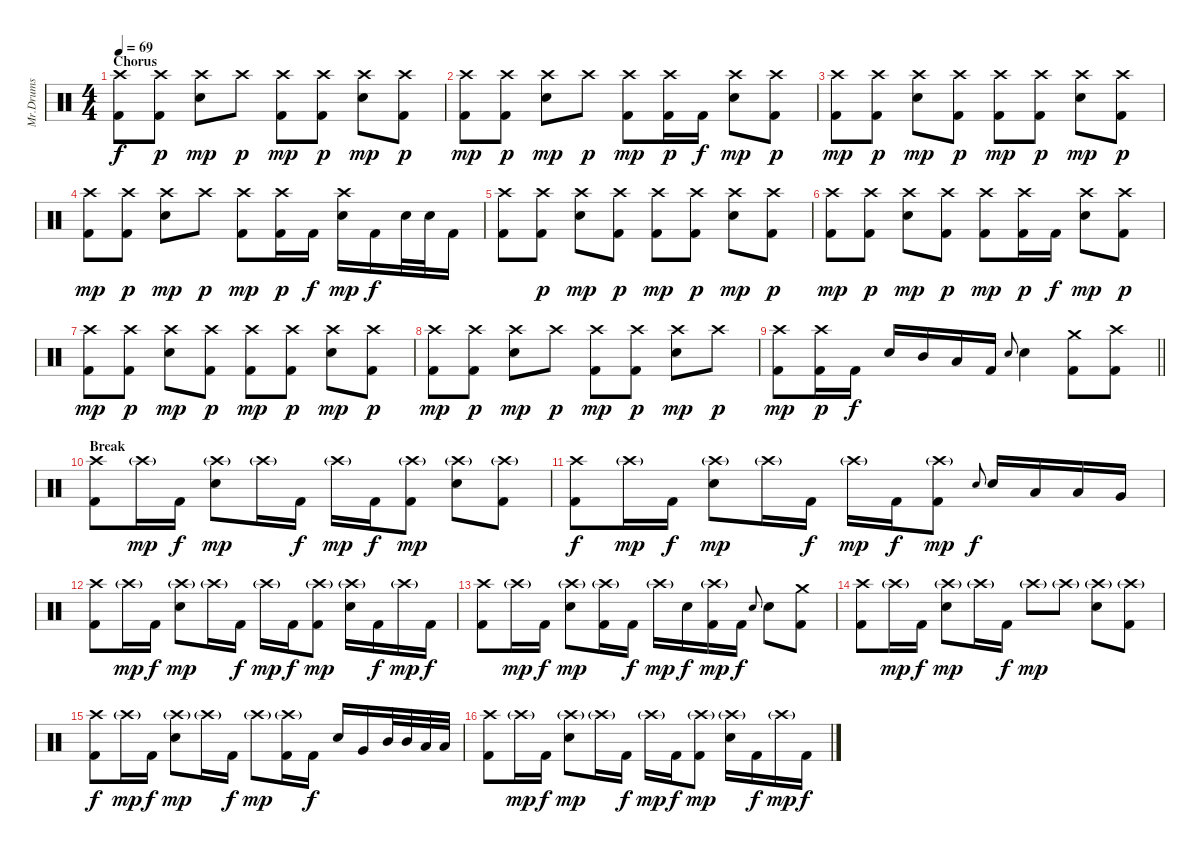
\track ("Mr.Drums" "Mr.Drums") {instrument percussion}
\staff {score}
\articulation defaults
\ts (4 4)
\section ("" "Chorus")
\tempo 69
\clef neutral
\ks c
("Crash high (hit)" "Kick (hit) 2").8{dy f} ("Crash high (hit)" "Kick (hit) 2").8{dy p} ("Crash high (hit)" "Electric Snare (hit)").8{dy mp} "Crash high (hit)".8{dy p} ("Crash high (hit)" "Kick (hit) 2").8{dy mp} ("Crash high (hit)" "Kick (hit) 2").8{dy p} ("Crash high (hit)" "Electric Snare (hit)").8{dy mp} ("Crash high (hit)" "Kick (hit) 2").8{dy p} |
("Crash high (hit)" "Kick (hit) 2").8{dy mp} ("Crash high (hit)" "Kick (hit) 2").8{dy p} ("Crash high (hit)" "Electric Snare (hit)").8{dy mp} "Crash high (hit)".8{dy p} ("Crash high (hit)" "Kick (hit) 2").8{dy mp} ("Crash high (hit)" "Kick (hit) 2").16{dy p} "Kick (hit) 2".16{dy f} ("Crash high (hit)" "Electric Snare (hit)").8{dy mp} ("Crash high (hit)" "Kick (hit) 2").8{dy p} |
("Crash high (hit)" "Kick (hit) 2").8{dy mp} ("Crash high (hit)" "Kick (hit) 2").8{dy p} ("Crash high (hit)" "Electric Snare (hit)").8{dy mp} ("Crash high (hit)" "Kick (hit) 2").8{dy p} ("Crash high (hit)" "Kick (hit) 2").8{dy mp} ("Crash high (hit)" "Kick (hit) 2").8{dy p} ("Crash high (hit)" "Electric Snare (hit)").8{dy mp} ("Crash high (hit)" "Kick (hit) 2").8{dy p} |
("Crash high (hit)" "Kick (hit) 2").8{dy mp} ("Crash high (hit)" "Kick (hit) 2").8{dy p} ("Crash high (hit)" "Electric Snare (hit)").8{dy mp} "Crash high (hit)".8{dy p} ("Crash high (hit)" "Kick (hit) 2").8{dy mp} ("Crash high (hit)" "Kick (hit) 2").16{dy p} "Kick (hit) 2".16{dy f} ("Crash high (hit)" "Electric Snare (hit)").16{dy mp} "Kick (hit) 2".16{dy f} "Electric Snare (hit)".32 "Electric Snare (hit)".32 "Kick (hit) 2".16 |
("Crash high (hit)" "Kick (hit) 2").8 ("Crash high (hit)" "Kick (hit) 2").8{dy p} ("Crash high (hit)" "Electric Snare (hit)").8{dy mp} ("Crash high (hit)" "Kick (hit) 2").8{dy p} ("Crash high (hit)" "Kick (hit) 2").8{dy mp} ("Crash high (hit)" "Kick (hit) 2").8{dy p} ("Crash high (hit)" "Electric Snare (hit)").8{dy mp} ("Crash high (hit)" "Kick (hit) 2").8{dy p} |
("Crash high (hit)" "Kick (hit) 2").8{dy mp} ("Crash high (hit)" "Kick (hit) 2").8{dy p} ("Crash high (hit)" "Electric Snare (hit)").8{dy mp} ("Crash high (hit)" "Kick (hit) 2").8{dy p} ("Crash high (hit)" "Kick (hit) 2").8{dy mp} ("Crash high (hit)" "Kick (hit) 2").16{dy p} "Kick (hit) 2".16{dy f} ("Crash high (hit)" "Electric Snare (hit)").8{dy mp} ("Crash high (hit)" "Kick (hit) 2").8{dy p} |
("Crash high (hit)" "Kick (hit) 2").8{dy mp} ("Crash high (hit)" "Kick (hit) 2").8{dy p} ("Crash high (hit)" "Electric Snare (hit)").8{dy mp} ("Crash high (hit)" "Kick (hit) 2").8{dy p} ("Crash high (hit)" "Kick (hit) 2").8{dy mp} ("Crash high (hit)" "Kick (hit) 2").8{dy p} ("Crash high (hit)" "Electric Snare (hit)").8{dy mp} ("Crash high (hit)" "Kick (hit) 2").8{dy p} |
("Crash high (hit)" "Kick (hit) 2").8{dy mp} ("Crash high (hit)" "Kick (hit) 2").8{dy p} ("Crash high (hit)" "Electric Snare (hit)").8{dy mp} "Crash high (hit)".8{dy p} ("Crash high (hit)" "Kick (hit) 2").8{dy mp} ("Crash high (hit)" "Kick (hit) 2").8{dy p} ("Crash high (hit)" "Electric Snare (hit)").8{dy mp} "Crash high (hit)".8{dy p} |
\barLineRight lightlight
("Crash high (hit)" "Kick (hit) 2").8{dy mp} ("Crash high (hit)" "Kick (hit) 2").16{dy p} "Kick (hit) 2".16{dy f} "Electric Snare (hit)".16 "Mid Tom (hit)".16 "Low Tom (hit)".16 "Kick (hit) 2".16 "Electric Snare (hit)".8{gr onbeat} "Electric Snare (hit)".4 ("Crash medium (hit)" "Kick (hit) 2").8 ("Crash high (hit)" "Kick (hit) 2").8 |
\section ("" "Break")
("Crash high (hit)" "Kick (hit) 2").8 "Crash high (hit)"{g}.16{dy mp} "Kick (hit) 2".16{dy f} ("Crash high (hit)"{g} "Electric Snare (hit)").8{dy mp} "Crash high (hit)"{g}.16 "Kick (hit) 2".16{dy f} "Crash high (hit)"{g}.16{dy mp} "Kick (hit) 2".16{dy f} ("Crash high (hit)"{g} "Kick (hit) 2").8{dy mp} ("Crash high (hit)"{g} "Electric Snare (hit)").8 ("Crash high (hit)"{g} "Kick (hit) 2").8 |
("Crash high (hit)" "Kick (hit) 2").8{dy f} "Crash high (hit)"{g}.16{dy mp} "Kick (hit) 2".16{dy f} ("Crash high (hit)"{g} "Electric Snare (hit)").8{dy mp} "Crash high (hit)"{g}.16 "Kick (hit) 2".16{dy f} "Crash high (hit)"{g}.16{dy mp} "Kick (hit) 2".16{dy f} ("Crash high (hit)"{g} "Kick (hit) 2").8{dy mp} "Electric Snare (hit)".8{gr onbeat dy f} "Electric Snare (hit)".16 "Low Tom (hit)".16 "Low Tom (hit)".16 "Very Low Tom (hit)".16 |
("Crash high (hit)" "Kick (hit) 2").8 "Crash high (hit)"{g}.16{dy mp} "Kick (hit) 2".16{dy f} ("Crash high (hit)"{g} "Electric Snare (hit)").8{dy mp} "Crash high (hit)"{g}.16 "Kick (hit) 2".16{dy f} "Crash high (hit)"{g}.16{dy mp} "Kick (hit) 2".16{dy f} ("Crash high (hit)"{g} "Kick (hit) 2").8{dy mp} ("Crash high (hit)"{g} "Electric Snare (hit)").16 "Kick (hit) 2".16{dy f} "Crash high (hit)"{g}.16{dy mp} "Kick (hit) 2".16{dy f} |
("Crash high (hit)" "Kick (hit) 2").8 "Crash high (hit)"{g}.16{dy mp} "Kick (hit) 2".16{dy f} ("Crash high (hit)"{g} "Electric Snare (hit)").8{dy mp} ("Crash high (hit)"{g} "Kick (hit) 2").16 "Kick (hit) 2".16{dy f} "Crash high (hit)"{g}.16{dy mp} "Electric Snare (hit)".16{dy f} ("Crash high (hit)"{g} "Kick (hit) 2").16{dy mp} "Kick (hit) 2".16{dy f} "Electric Snare (hit)".8{gr onbeat} "Electric Snare (hit)".8 ("Crash medium (hit)" "Kick (hit) 2").8 |
("Crash high (hit)" "Kick (hit) 2").8 "Crash high (hit)"{g}.16{dy mp} "Kick (hit) 2".16{dy f} ("Crash high (hit)"{g} "Electric Snare (hit)").8{dy mp} "Crash high (hit)"{g}.16 "Kick (hit) 2".16{dy f} "Crash high (hit)"{g}.8{dy mp} "Crash high (hit)"{g}.8 ("Crash high (hit)"{g} "Electric Snare (hit)").8 ("Crash high (hit)"{g} "Kick (hit) 2").8 |
("Crash high (hit)" "Kick (hit) 2").8{dy f} "Crash high (hit)"{g}.16{dy mp} "Kick (hit) 2".16{dy f} ("Crash high (hit)"{g} "Electric Snare (hit)").8{dy mp} "Crash high (hit)"{g}.16 "Kick (hit) 2".16{dy f} "Crash high (hit)"{g}.8{dy mp} ("Crash high (hit)"{g} "Kick (hit) 2").16 "Kick (hit) 2".16{dy f} "Electric Snare (hit)".16 "Very Low Tom (hit)".16 "Mid Tom (hit)".32 "Mid Tom (hit)".32 "Low Tom (hit)".32 "Low Tom (hit)".32 |
("Crash high (hit)" "Kick (hit) 2").8 "Crash high (hit)"{g}.16{dy mp} "Kick (hit) 2".16{dy f} ("Crash high (hit)"{g} "Electric Snare (hit)").8{dy mp} "Crash high (hit)"{g}.16 "Kick (hit) 2".16{dy f} "Crash high (hit)"{g}.16{dy mp} "Kick (hit) 2".16{dy f} ("Crash high (hit)"{g} "Kick (hit) 2").8{dy mp} ("Crash high (hit)"{g} "Electric Snare (hit)").16 "Kick (hit) 2".16{dy f} "Crash high (hit)"{g}.16{dy mp} "Kick (hit) 2".16{dy f}
